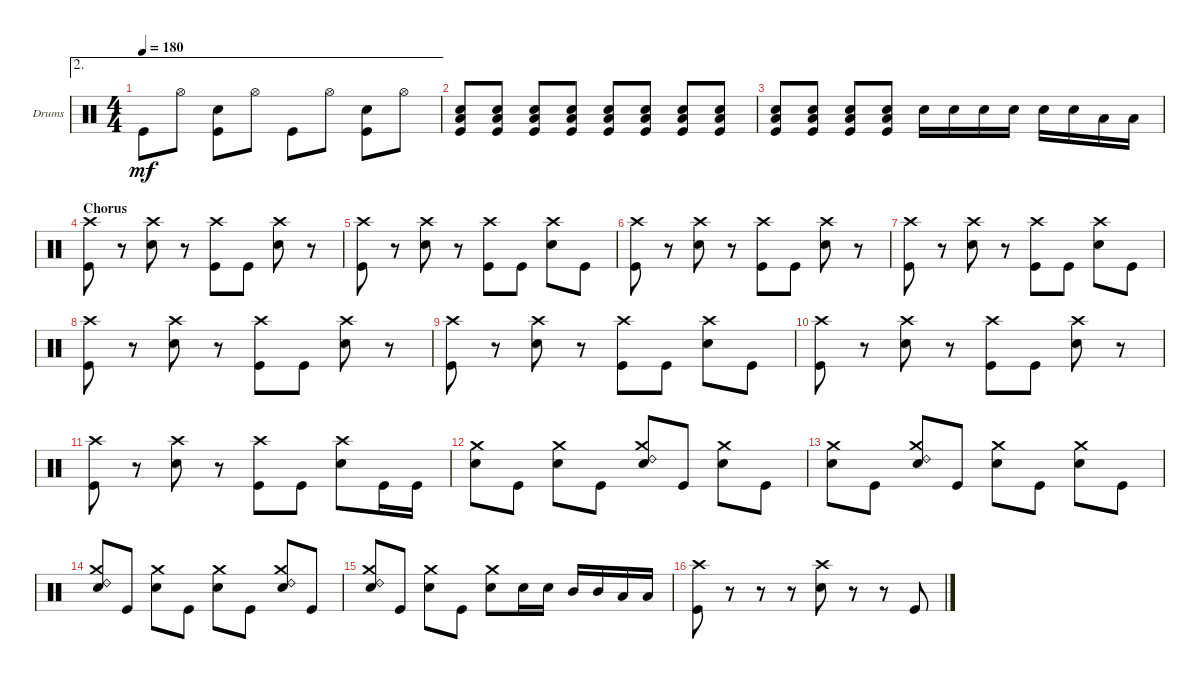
\defaultSystemsLayout 4
\bracketExtendMode groupsimilarinstruments
\firstSystemTrackNameOrientation horizontal
\otherSystemsTrackNameOrientation horizontal
\track ("Drums" "Drums") {instrument percussion}
\staff {score}
\articulation defaults
\ae 2
\ts (4 4)
\tempo 180
\clef neutral
\scale
0.333333
\ks c "Kick (hit)".8{dy mf} "Hi-Hat (open)".8
("Snare (hit) 2" "Kick (hit)").8 "Hi-Hat (open)".8 "Kick (hit)".8 "Hi-Hat (open)".8 ("Snare (hit) 2" "Kick (hit)").8 "Hi-Hat (open)".8 |
\scale
0.333333 ("Kick (hit)" "Snare (hit) 2" "Low Tom (hit)").8 ("Kick (hit)" "Snare (hit) 2" "Low Tom (hit)").8 ("Kick (hit)" "Snare (hit) 2" "Low Tom (hit)").8 ("Kick (hit)" "Snare (hit) 2" "Low Tom (hit)").8 ("Kick (hit)" "Snare (hit) 2" "Low Tom (hit)").8 ("Kick (hit)" "Snare (hit) 2" "Low Tom (hit)").8 ("Kick (hit)" "Snare (hit) 2" "Low Tom (hit)").8 ("Kick (hit)" "Snare (hit) 2" "Low Tom (hit)").8 |
\scale
0.333333 ("Kick (hit)" "Snare (hit) 2" "Low Tom (hit)").8 ("Kick (hit)" "Snare (hit) 2" "Low Tom (hit)").8 ("Kick (hit)" "Snare (hit) 2" "Low Tom (hit)").8 ("Kick (hit)" "Snare (hit) 2" "Low Tom (hit)").8 "Snare (hit) 2".16 "Snare (hit) 2".16 "Snare (hit) 2".16 "Snare (hit) 2".16 "Snare (hit) 2".16 "Snare (hit) 2".16 "Low Tom (hit)".16 "Low Tom (hit)".16 |
\section ("" "Chorus")
\scale
0.333333 ("Kick (hit)" "Crash high (hit)").8 r.8 ("Snare (hit) 2" "Crash high (hit)").8 r.8 ("Kick (hit)" "Crash high (hit)").8 "Kick (hit)".8 ("Snare (hit) 2" "Crash high (hit)").8 r.8 |
\scale
0.333333 ("Kick (hit)" "Crash high (hit)").8 r.8 ("Snare (hit) 2" "Crash high (hit)").8 r.8 ("Kick (hit)" "Crash high (hit)").8 "Kick (hit)".8 ("Snare (hit) 2" "Crash high (hit)").8 "Kick (hit)".8 |
\scale
0.333333 ("Kick (hit)" "Crash high (hit)").8 r.8 ("Snare (hit) 2" "Crash high (hit)").8 r.8 ("Kick (hit)" "Crash high (hit)").8 "Kick (hit)".8 ("Snare (hit) 2" "Crash high (hit)").8 r.8 |
("Kick (hit)" "Crash high (hit)").8 r.8 ("Snare (hit) 2" "Crash high (hit)").8 r.8 ("Kick (hit)" "Crash high (hit)").8 "Kick (hit)".8 ("Snare (hit) 2" "Crash high (hit)").8 "Kick (hit)".8 |
("Kick (hit)" "Crash high (hit)").8 r.8 ("Snare (hit) 2" "Crash high (hit)").8 r.8 ("Kick (hit)" "Crash high (hit)").8 "Kick (hit)".8 ("Snare (hit) 2" "Crash high (hit)").8 r.8 |
\scale
0.333333 ("Kick (hit)" "Crash high (hit)").8 r.8 ("Snare (hit) 2" "Crash high (hit)").8 r.8 ("Kick (hit)" "Crash high (hit)").8 "Kick (hit)".8 ("Snare (hit) 2" "Crash high (hit)").8 "Kick (hit)".8 |
\scale
0.333333 ("Kick (hit)" "Crash high (hit)").8 r.8 ("Snare (hit) 2" "Crash high (hit)").8 r.8 ("Kick (hit)" "Crash high (hit)").8 "Kick (hit)".8 ("Snare (hit) 2" "Crash high (hit)").8 r.8 |
\scale
0.333333 ("Kick (hit)" "Crash high (hit)").8 r.8 ("Snare (hit) 2" "Crash high (hit)").8 r.8 ("Kick (hit)" "Crash high (hit)").8 "Kick (hit)".8 ("Snare (hit) 2" "Crash high (hit)").8 "Kick (hit)".16 "Kick (hit)".16 |
\scale
0.333333 ("Snare (hit) 2" "Crash medium (hit)").8 "Kick (hit)".8 ("Snare (hit) 2" "Crash medium (hit)").8 "Kick (hit)".8 ("Snare (hit) 2" "Ride (bell) 2" "Crash medium (hit)").8 "Kick (hit)".8 ("Snare (hit) 2" "Crash medium (hit)").8 "Kick (hit)".8 |
\scale
0.333333 ("Snare (hit) 2" "Crash medium (hit)").8 "Kick (hit)".8 ("Snare (hit) 2" "Crash medium (hit)" "Ride (bell) 2").8 "Kick (hit)".8 ("Snare (hit) 2" "Crash medium (hit)").8 "Kick (hit)".8 ("Snare (hit) 2" "Crash medium (hit)").8 "Kick (hit)".8 |
\scale
0.333333 ("Snare (hit) 2" "Crash medium (hit)" "Ride (bell) 2").8 "Kick (hit)".8 ("Snare (hit) 2" "Crash medium (hit)").8 "Kick (hit)".8 ("Snare (hit) 2" "Crash medium (hit)").8 "Kick (hit)".8 ("Snare (hit) 2" "Crash medium (hit)" "Ride (bell) 2").8 "Kick (hit)".8 |
\scale
0.333333 ("Snare (hit) 2" "Crash medium (hit)" "Ride (bell) 2").8 "Kick (hit)".8 ("Snare (hit) 2" "Crash medium (hit)").8 "Kick (hit)".8 ("Snare (hit) 2" "Crash medium (hit)").8 "Snare (hit) 2".16 "Snare (hit) 2".16 "Mid Tom (hit)".16 "Mid Tom (hit)".16 "Low Tom (hit)".16 "Low Tom (hit)".16 |
\scale
0.333333 ("Kick (hit)" "Crash high (hit)").8 r.8 r.8 r.8 ("Snare (hit) 2" "Crash high (hit)").8 r.8 r.8 "Kick (hit)".8
